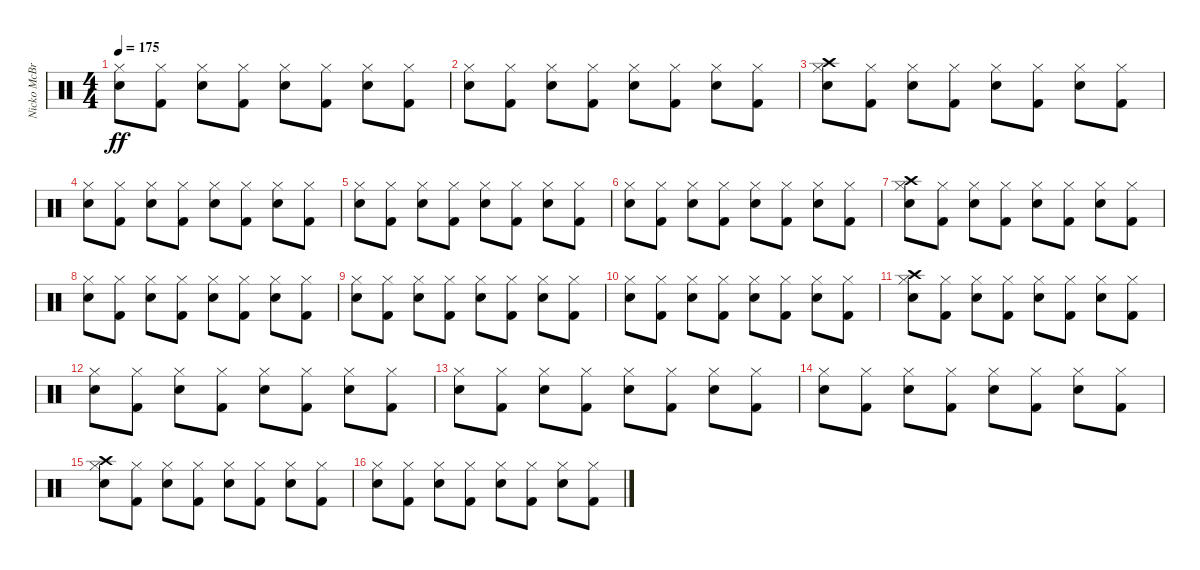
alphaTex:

\track ("Nicko McBrain" "Nicko McBr") {instrument percussion}
\staff {score}
\articulation defaults
\ts (4 4)
\tempo 175
\clef neutral
\ks c
("Snare (hit) 2" "Hi-Hat (closed)").8{dy ff} ("Kick (hit) 2" "Hi-Hat (closed)").8 ("Snare (hit) 2" "Hi-Hat (closed)").8 ("Kick (hit) 2" "Hi-Hat (closed)").8 ("Snare (hit) 2" "Hi-Hat (closed)").8 ("Kick (hit) 2" "Hi-Hat (closed)").8 ("Snare (hit) 2" "Hi-Hat (closed)").8 ("Kick (hit) 2" "Hi-Hat (closed)").8 |
("Snare (hit) 2" "Hi-Hat (closed)").8 ("Kick (hit) 2" "Hi-Hat (closed)").8 ("Snare (hit) 2" "Hi-Hat (closed)").8 ("Kick (hit) 2" "Hi-Hat (closed)").8 ("Snare (hit) 2" "Hi-Hat (closed)").8 ("Kick (hit) 2" "Hi-Hat (closed)").8 ("Snare (hit) 2" "Hi-Hat (closed)").8 ("Kick (hit) 2" "Hi-Hat (closed)").8 |
("Snare (hit) 2" "Hi-Hat (closed)" "Crash high (hit)").8 ("Kick (hit) 2" "Hi-Hat (closed)").8 ("Snare (hit) 2" "Hi-Hat (closed)").8 ("Kick (hit) 2" "Hi-Hat (closed)").8 ("Snare (hit) 2" "Hi-Hat (closed)").8 ("Kick (hit) 2" "Hi-Hat (closed)").8 ("Snare (hit) 2" "Hi-Hat (closed)").8 ("Kick (hit) 2" "Hi-Hat (closed)").8 |
("Snare (hit) 2" "Hi-Hat (closed)").8 ("Kick (hit) 2" "Hi-Hat (closed)").8 ("Snare (hit) 2" "Hi-Hat (closed)").8 ("Kick (hit) 2" "Hi-Hat (closed)").8 ("Snare (hit) 2" "Hi-Hat (closed)").8 ("Kick (hit) 2" "Hi-Hat (closed)").8 ("Snare (hit) 2" "Hi-Hat (closed)").8 ("Kick (hit) 2" "Hi-Hat (closed)").8 |
("Snare (hit) 2" "Hi-Hat (closed)").8 ("Kick (hit) 2" "Hi-Hat (closed)").8 ("Snare (hit) 2" "Hi-Hat (closed)").8 ("Kick (hit) 2" "Hi-Hat (closed)").8 ("Snare (hit) 2" "Hi-Hat (closed)").8 ("Kick (hit) 2" "Hi-Hat (closed)").8 ("Snare (hit) 2" "Hi-Hat (closed)").8 ("Kick (hit) 2" "Hi-Hat (closed)").8 |
("Snare (hit) 2" "Hi-Hat (closed)").8 ("Kick (hit) 2" "Hi-Hat (closed)").8 ("Snare (hit) 2" "Hi-Hat (closed)").8 ("Kick (hit) 2" "Hi-Hat (closed)").8 ("Snare (hit) 2" "Hi-Hat (closed)").8 ("Kick (hit) 2" "Hi-Hat (closed)").8 ("Snare (hit) 2" "Hi-Hat (closed)").8 ("Kick (hit) 2" "Hi-Hat (closed)").8 |
("Snare (hit) 2" "Hi-Hat (closed)" "Crash high (hit)").8 ("Kick (hit) 2" "Hi-Hat (closed)").8 ("Snare (hit) 2" "Hi-Hat (closed)").8 ("Kick (hit) 2" "Hi-Hat (closed)").8 ("Snare (hit) 2" "Hi-Hat (closed)").8 ("Kick (hit) 2" "Hi-Hat (closed)").8 ("Snare (hit) 2" "Hi-Hat (closed)").8 ("Kick (hit) 2" "Hi-Hat (closed)").8 |
("Snare (hit) 2" "Hi-Hat (closed)").8 ("Kick (hit) 2" "Hi-Hat (closed)").8 ("Snare (hit) 2" "Hi-Hat (closed)").8 ("Kick (hit) 2" "Hi-Hat (closed)").8 ("Snare (hit) 2" "Hi-Hat (closed)").8 ("Kick (hit) 2" "Hi-Hat (closed)").8 ("Snare (hit) 2" "Hi-Hat (closed)").8 ("Kick (hit) 2" "Hi-Hat (closed)").8 |
("Snare (hit) 2" "Hi-Hat (closed)").8 ("Kick (hit) 2" "Hi-Hat (closed)").8 ("Snare (hit) 2" "Hi-Hat (closed)").8 ("Kick (hit) 2" "Hi-Hat (closed)").8 ("Snare (hit) 2" "Hi-Hat (closed)").8 ("Kick (hit) 2" "Hi-Hat (closed)").8 ("Snare (hit) 2" "Hi-Hat (closed)").8 ("Kick (hit) 2" "Hi-Hat (closed)").8 |
("Snare (hit) 2" "Hi-Hat (closed)").8 ("Kick (hit) 2" "Hi-Hat (closed)").8 ("Snare (hit) 2" "Hi-Hat (closed)").8 ("Kick (hit) 2" "Hi-Hat (closed)").8 ("Snare (hit) 2" "Hi-Hat (closed)").8 ("Kick (hit) 2" "Hi-Hat (closed)").8 ("Snare (hit) 2" "Hi-Hat (closed)").8 ("Kick (hit) 2" "Hi-Hat (closed)").8 |
("Snare (hit) 2" "Hi-Hat (closed)" "Crash high (hit)").8 ("Kick (hit) 2" "Hi-Hat (closed)").8 ("Snare (hit) 2" "Hi-Hat (closed)").8 ("Kick (hit) 2" "Hi-Hat (closed)").8 ("Snare (hit) 2" "Hi-Hat (closed)").8 ("Kick (hit) 2" "Hi-Hat (closed)").8 ("Snare (hit) 2" "Hi-Hat (closed)").8 ("Kick (hit) 2" "Hi-Hat (closed)").8 |
("Snare (hit) 2" "Hi-Hat (closed)").8 ("Kick (hit) 2" "Hi-Hat (closed)").8 ("Snare (hit) 2" "Hi-Hat (closed)").8 ("Kick (hit) 2" "Hi-Hat (closed)").8 ("Snare (hit) 2" "Hi-Hat (closed)").8 ("Kick (hit) 2" "Hi-Hat (closed)").8 ("Snare (hit) 2" "Hi-Hat (closed)").8 ("Kick (hit) 2" "Hi-Hat (closed)").8 |
("Snare (hit) 2" "Hi-Hat (closed)").8 ("Kick (hit) 2" "Hi-Hat (closed)").8 ("Snare (hit) 2" "Hi-Hat (closed)").8 ("Kick (hit) 2" "Hi-Hat (closed)").8 ("Snare (hit) 2" "Hi-Hat (closed)").8 ("Kick (hit) 2" "Hi-Hat (closed)").8 ("Snare (hit) 2" "Hi-Hat (closed)").8 ("Kick (hit) 2" "Hi-Hat (closed)").8 |
("Snare (hit) 2" "Hi-Hat (closed)").8 ("Kick (hit) 2" "Hi-Hat (closed)").8 ("Snare (hit) 2" "Hi-Hat (closed)").8 ("Kick (hit) 2" "Hi-Hat (closed)").8 ("Snare (hit) 2" "Hi-Hat (closed)").8 ("Kick (hit) 2" "Hi-Hat (closed)").8 ("Snare (hit) 2" "Hi-Hat (closed)").8 ("Kick (hit) 2" "Hi-Hat (closed)").8 |
("Snare (hit) 2" "Hi-Hat (closed)" "Crash high (hit)").8 ("Kick (hit) 2" "Hi-Hat (closed)").8 ("Snare (hit) 2" "Hi-Hat (closed)").8 ("Kick (hit) 2" "Hi-Hat (closed)").8 ("Snare (hit) 2" "Hi-Hat (closed)").8 ("Kick (hit) 2" "Hi-Hat (closed)").8 ("Snare (hit) 2" "Hi-Hat (closed)").8 ("Kick (hit) 2" "Hi-Hat (closed)").8 |
("Snare (hit) 2" "Hi-Hat (closed)").8 ("Kick (hit) 2" "Hi-Hat (closed)").8 ("Snare (hit) 2" "Hi-Hat (closed)").8 ("Kick (hit) 2" "Hi-Hat (closed)").8 ("Snare (hit) 2" "Hi-Hat (closed)").8 ("Kick (hit) 2" "Hi-Hat (closed)").8 ("Snare (hit) 2" "Hi-Hat (closed)").8 ("Kick (hit) 2" "Hi-Hat (closed)").8
